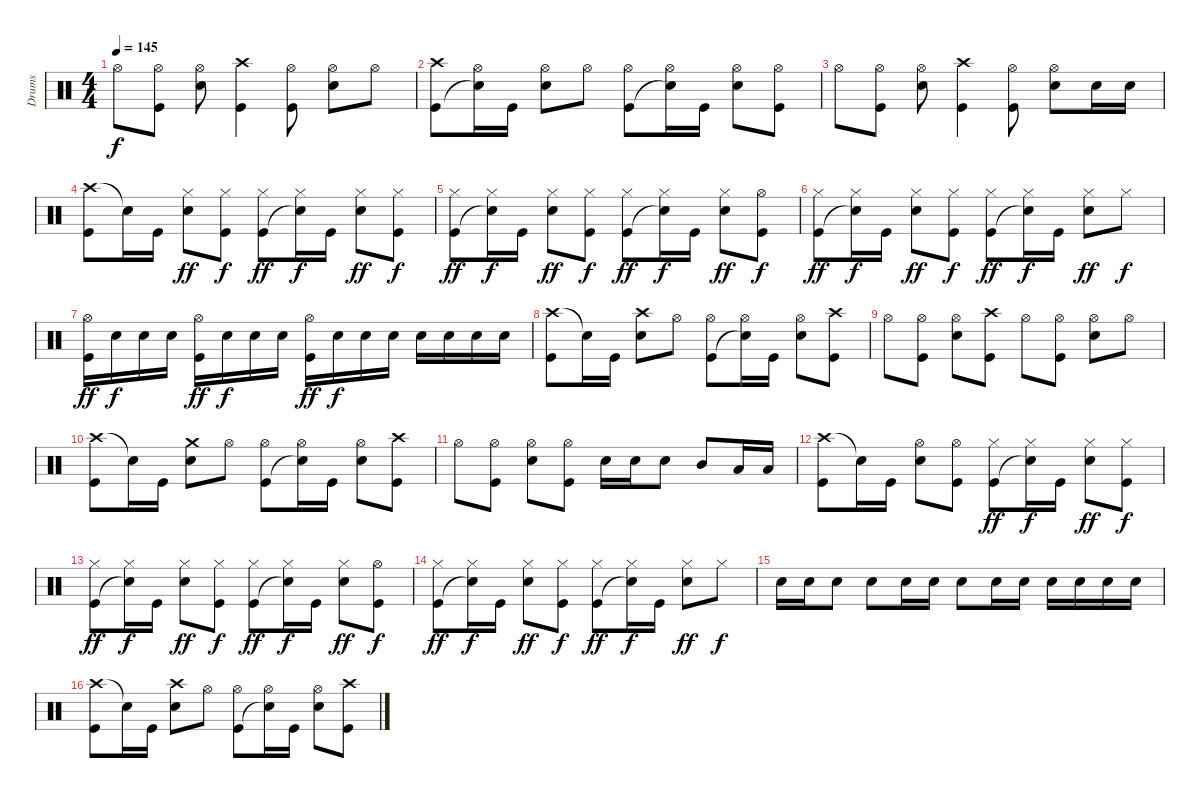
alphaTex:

\track ("Drums" "Drums") {instrument percussion}
\staff {score}
\articulation defaults
\ts (4 4)
\tempo 145
\clef neutral
\ks c "Hi-Hat (open)".8{dy f}
("Hi-Hat (open)" "Kick (hit)").8 ("Hi-Hat (open)" "Snare (hit) 2").8 ("Crash high (hit)" "Kick (hit)").4 ("Hi-Hat (open)" "Kick (hit)").8 ("Hi-Hat (open)" "Snare (hit) 2").8 "Hi-Hat (open)".8 |
("Crash high (hit)" "Kick (hit)").8 ("Hi-Hat (open)" "Snare (hit) 2"{t}).16 "Kick (hit)".16 ("Hi-Hat (open)" "Snare (hit) 2").8 "Hi-Hat (open)".8 ("Hi-Hat (open)" "Kick (hit)").8 ("Hi-Hat (open)" "Snare (hit)"{t}).16 "Kick (hit)".16 ("Hi-Hat (open)" "Snare (hit) 2").8 ("Hi-Hat (open)" "Kick (hit)").8 |
"Hi-Hat (open)".8 ("Hi-Hat (open)" "Kick (hit)").8 ("Hi-Hat (open)" "Snare (hit) 2").8 ("Crash high (hit)" "Kick (hit)").4 ("Hi-Hat (open)" "Kick (hit)").8 ("Hi-Hat (open)" "Snare (hit) 2").8 "Snare (hit) 2".16 "Snare (hit) 2".16 |
("Crash high (hit)" "Kick (hit)").8 "Snare (hit) 2"{t}.16 "Kick (hit)".16 ("Hi-Hat (closed)" "Snare (hit) 2").8{dy ff} ("Hi-Hat (closed)" "Kick (hit)").8{dy f} ("Hi-Hat (closed)" "Kick (hit)").8{dy ff} ("Hi-Hat (closed)" "Snare (hit)"{t}).16{dy f} "Kick (hit)".16 ("Hi-Hat (closed)" "Snare (hit) 2").8{dy ff} ("Hi-Hat (closed)" "Kick (hit)").8{dy f} |
("Hi-Hat (closed)" "Kick (hit)").8{dy ff} ("Hi-Hat (closed)" "Snare (hit) 2"{t}).16{dy f} "Kick (hit)".16 ("Hi-Hat (closed)" "Snare (hit) 2").8{dy ff} ("Hi-Hat (closed)" "Kick (hit)").8{dy f} ("Hi-Hat (closed)" "Kick (hit)").8{dy ff} ("Hi-Hat (closed)" "Snare (hit)"{t}).16{dy f} "Kick (hit)".16 ("Hi-Hat (closed)" "Snare (hit) 2").8{dy ff} ("Hi-Hat (open)" "Kick (hit)").8{dy f} |
("Hi-Hat (closed)" "Kick (hit)").8{dy ff} ("Hi-Hat (closed)" "Snare (hit) 2"{t}).16{dy f} "Kick (hit)".16 ("Hi-Hat (closed)" "Snare (hit) 2").8{dy ff} ("Hi-Hat (closed)" "Kick (hit)").8{dy f} ("Hi-Hat (closed)" "Kick (hit)").8{dy ff} ("Hi-Hat (closed)" "Snare (hit)"{t}).16{dy f} "Kick (hit)".16 ("Hi-Hat (closed)" "Snare (hit) 2").8{dy ff} "Hi-Hat (closed)".8{dy f} |
("Hi-Hat (open)" "Kick (hit)").16{dy ff} "Snare (hit) 2".16{dy f} "Snare (hit) 2".16 "Snare (hit) 2".16 ("Hi-Hat (open)" "Kick (hit)").16{dy ff} "Snare (hit) 2".16{dy f} "Snare (hit) 2".16 "Snare (hit) 2".16 ("Hi-Hat (open)" "Kick (hit)").16{dy ff} "Snare (hit) 2".16{dy f} "Snare (hit) 2".16 "Snare (hit) 2".16 "Snare (hit) 2".16 "Snare (hit) 2".16 "Snare (hit) 2".16 "Snare (hit) 2".16 |
("Crash high (hit)" "Kick (hit)").8 "Snare (hit) 2"{t}.16 "Kick (hit)".16 ("Crash high (hit)" "Snare (hit) 2").8 "Hi-Hat (open)".8 ("Hi-Hat (open)" "Kick (hit)").8 ("Hi-Hat (open)" "Snare (hit)"{t}).16 "Kick (hit)".16 ("Hi-Hat (open)" "Snare (hit) 2").8 ("Crash high (hit)" "Kick (hit)").8 |
"Hi-Hat (open)".8 ("Hi-Hat (open)" "Kick (hit)").8 ("Hi-Hat (open)" "Snare (hit) 2").8 ("Crash high (hit)" "Kick (hit)").8 "Hi-Hat (open)".8 ("Hi-Hat (open)" "Kick (hit)").8 ("Hi-Hat (open)" "Snare (hit) 2").8 "Hi-Hat (open)".8 |
("Crash high (hit)" "Kick (hit)").8 "Snare (hit) 2"{t}.16 "Kick (hit)".16 ("Crash medium (hit)" "Snare (hit) 2").8 "Hi-Hat (open)".8 ("Hi-Hat (open)" "Kick (hit)").8 ("Hi-Hat (open)" "Snare (hit)"{t}).16 "Kick (hit)".16 ("Hi-Hat (open)" "Snare (hit) 2").8 ("Crash high (hit)" "Kick (hit)").8 |
"Hi-Hat (open)".8 ("Hi-Hat (open)" "Kick (hit)").8 ("Hi-Hat (open)" "Snare (hit) 2").8 ("Hi-Hat (open)" "Kick (hit)").8 "Snare (hit) 2".16 "Snare (hit) 2".16 "Snare (hit) 2".8 "Mid Tom (hit)".8 "Low Tom (hit)".16 "Low Tom (hit)".16 |
("Crash high (hit)" "Kick (hit)").8 "Snare (hit) 2"{t}.16 "Kick (hit)".16 ("Hi-Hat (open)" "Snare (hit) 2").8 ("Hi-Hat (open)" "Kick (hit)").8 ("Hi-Hat (closed)" "Kick (hit)").8{dy ff} ("Hi-Hat (closed)" "Snare (hit)"{t}).16{dy f} "Kick (hit)".16 ("Hi-Hat (closed)" "Snare (hit) 2").8{dy ff} ("Hi-Hat (closed)" "Kick (hit)").8{dy f} |
("Hi-Hat (closed)" "Kick (hit)").8{dy ff} ("Hi-Hat (closed)" "Snare (hit) 2"{t}).16{dy f} "Kick (hit)".16 ("Hi-Hat (closed)" "Snare (hit) 2").8{dy ff} ("Hi-Hat (closed)" "Kick (hit)").8{dy f} ("Hi-Hat (closed)" "Kick (hit)").8{dy ff} ("Hi-Hat (closed)" "Snare (hit)"{t}).16{dy f} "Kick (hit)".16 ("Hi-Hat (closed)" "Snare (hit) 2").8{dy ff} ("Hi-Hat (open)" "Kick (hit)").8{dy f} |
("Hi-Hat (closed)" "Kick (hit)").8{dy ff} ("Hi-Hat (closed)" "Snare (hit) 2"{t}).16{dy f} "Kick (hit)".16 ("Hi-Hat (closed)" "Snare (hit) 2").8{dy ff} ("Hi-Hat (closed)" "Kick (hit)").8{dy f} ("Hi-Hat (closed)" "Kick (hit)").8{dy ff} ("Hi-Hat (closed)" "Snare (hit)"{t}).16{dy f} "Kick (hit)".16 ("Hi-Hat (closed)" "Snare (hit) 2").8{dy ff} "Hi-Hat (closed)".8{dy f} |
"Snare (hit) 2".16 "Snare (hit) 2".16 "Snare (hit) 2".8 "Snare (hit) 2".8 "Snare (hit) 2".16 "Snare (hit) 2".16 "Snare (hit) 2".8 "Snare (hit) 2".16 "Snare (hit) 2".16 "Snare (hit) 2".16 "Snare (hit) 2".16 "Snare (hit) 2".16 "Snare (hit) 2".16 |
("Crash high (hit)" "Kick (hit)").8 "Snare (hit) 2"{t}.16 "Kick (hit)".16 ("Crash high (hit)" "Snare (hit) 2").8 "Hi-Hat (open)".8 ("Hi-Hat (open)" "Kick (hit)").8 ("Hi-Hat (open)" "Snare (hit)"{t}).16 "Kick (hit)".16 ("Hi-Hat (open)" "Snare (hit) 2").8 ("Crash high (hit)" "Kick (hit)").8
